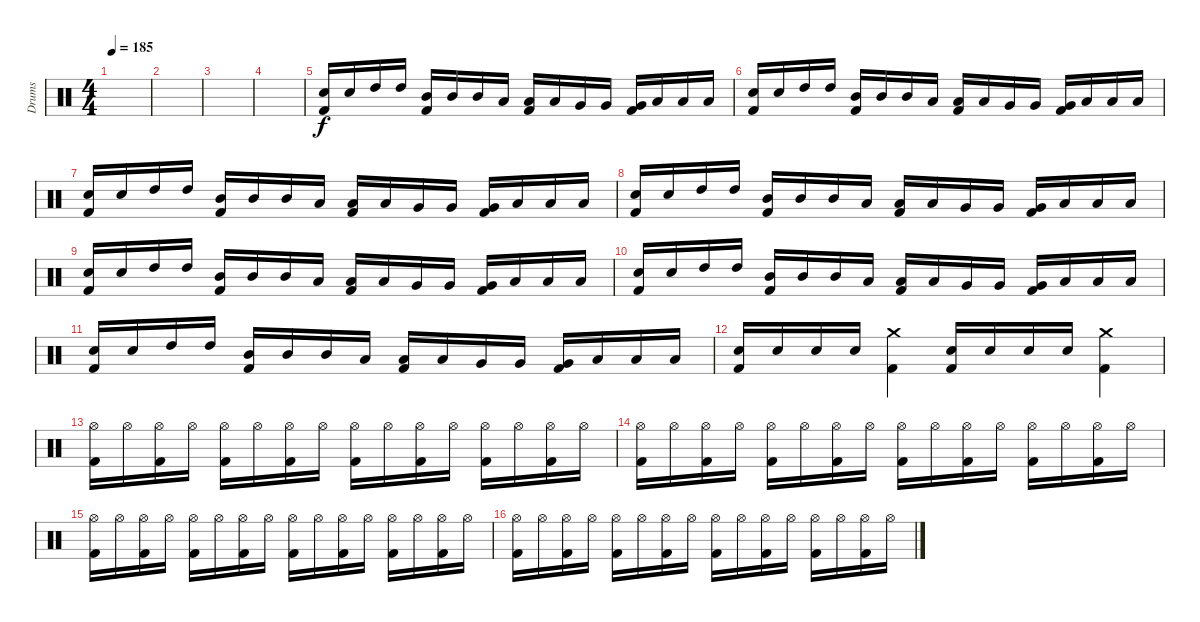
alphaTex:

\track ("Drums" "Drums") {instrument percussion}
\staff {score}
\articulation defaults
\ts (4 4)
\tempo 185
\clef neutral
\ks c
|
|
|
|
("Electric Snare (hit)" "Kick (hit) 2").16 "Electric Snare (hit)".16 "High Tom (hit)".16 "High Tom (hit)".16 ("Mid Tom (hit)" "Kick (hit) 2").16 "Mid Tom (hit)".16 "Mid Tom (hit)".16 "Low Tom (hit)".16 ("Low Tom (hit)" "Kick (hit) 2").16 "Low Tom (hit)".16 "Very Low Tom (hit)".16 "Very Low Tom (hit)".16 ("Very Low Tom (hit)" "Kick (hit) 2").16 "Low Floor Tom (hit)".16 "Low Floor Tom (hit)".16 "Low Floor Tom (hit)".16 |
("Electric Snare (hit)" "Kick (hit) 2").16 "Electric Snare (hit)".16 "High Tom (hit)".16 "High Tom (hit)".16 ("Mid Tom (hit)" "Kick (hit) 2").16 "Mid Tom (hit)".16 "Mid Tom (hit)".16 "Low Tom (hit)".16 ("Low Tom (hit)" "Kick (hit) 2").16 "Low Tom (hit)".16 "Very Low Tom (hit)".16 "Very Low Tom (hit)".16 ("Very Low Tom (hit)" "Kick (hit) 2").16 "Low Floor Tom (hit)".16 "Low Floor Tom (hit)".16 "Low Floor Tom (hit)".16 |
("Electric Snare (hit)" "Kick (hit) 2").16 "Electric Snare (hit)".16 "High Tom (hit)".16 "High Tom (hit)".16 ("Mid Tom (hit)" "Kick (hit) 2").16 "Mid Tom (hit)".16 "Mid Tom (hit)".16 "Low Tom (hit)".16 ("Low Tom (hit)" "Kick (hit) 2").16 "Low Tom (hit)".16 "Very Low Tom (hit)".16 "Very Low Tom (hit)".16 ("Very Low Tom (hit)" "Kick (hit) 2").16 "Low Floor Tom (hit)".16 "Low Floor Tom (hit)".16 "Low Floor Tom (hit)".16 |
("Electric Snare (hit)" "Kick (hit) 2").16 "Electric Snare (hit)".16 "High Tom (hit)".16 "High Tom (hit)".16 ("Mid Tom (hit)" "Kick (hit) 2").16 "Mid Tom (hit)".16 "Mid Tom (hit)".16 "Low Tom (hit)".16 ("Low Tom (hit)" "Kick (hit) 2").16 "Low Tom (hit)".16 "Very Low Tom (hit)".16 "Very Low Tom (hit)".16 ("Very Low Tom (hit)" "Kick (hit) 2").16 "Low Floor Tom (hit)".16 "Low Floor Tom (hit)".16 "Low Floor Tom (hit)".16 |
("Electric Snare (hit)" "Kick (hit) 2").16 "Electric Snare (hit)".16 "High Tom (hit)".16 "High Tom (hit)".16 ("Mid Tom (hit)" "Kick (hit) 2").16 "Mid Tom (hit)".16 "Mid Tom (hit)".16 "Low Tom (hit)".16 ("Low Tom (hit)" "Kick (hit) 2").16 "Low Tom (hit)".16 "Very Low Tom (hit)".16 "Very Low Tom (hit)".16 ("Very Low Tom (hit)" "Kick (hit) 2").16 "Low Floor Tom (hit)".16 "Low Floor Tom (hit)".16 "Low Floor Tom (hit)".16 |
("Electric Snare (hit)" "Kick (hit) 2").16 "Electric Snare (hit)".16 "High Tom (hit)".16 "High Tom (hit)".16 ("Mid Tom (hit)" "Kick (hit) 2").16 "Mid Tom (hit)".16 "Mid Tom (hit)".16 "Low Tom (hit)".16 ("Low Tom (hit)" "Kick (hit) 2").16 "Low Tom (hit)".16 "Very Low Tom (hit)".16 "Very Low Tom (hit)".16 ("Very Low Tom (hit)" "Kick (hit) 2").16 "Low Floor Tom (hit)".16 "Low Floor Tom (hit)".16 "Low Floor Tom (hit)".16 |
("Electric Snare (hit)" "Kick (hit) 2").16 "Electric Snare (hit)".16 "High Tom (hit)".16 "High Tom (hit)".16 ("Mid Tom (hit)" "Kick (hit) 2").16 "Mid Tom (hit)".16 "Mid Tom (hit)".16 "Low Tom (hit)".16 ("Low Tom (hit)" "Kick (hit) 2").16 "Low Tom (hit)".16 "Very Low Tom (hit)".16 "Very Low Tom (hit)".16 ("Very Low Tom (hit)" "Kick (hit) 2").16 "Low Floor Tom (hit)".16 "Low Floor Tom (hit)".16 "Low Floor Tom (hit)".16 |
("Electric Snare (hit)" "Kick (hit) 2").16 "Electric Snare (hit)".16 "Electric Snare (hit)".16 "Electric Snare (hit)".16 ("Crash medium (hit)" "Kick (hit) 2").4 ("Electric Snare (hit)" "Kick (hit) 2").16 "Electric Snare (hit)".16 "Electric Snare (hit)".16 "Electric Snare (hit)".16 ("Crash medium (hit)" "Kick (hit) 2").4 |
("Hi-Hat (open)" "Kick (hit) 2").16 "Hi-Hat (open)".16 ("Hi-Hat (open)" "Kick (hit) 2").16 "Hi-Hat (open)".16 ("Hi-Hat (open)" "Kick (hit) 2").16 "Hi-Hat (open)".16 ("Hi-Hat (open)" "Kick (hit) 2").16 "Hi-Hat (open)".16 ("Hi-Hat (open)" "Kick (hit) 2").16 "Hi-Hat (open)".16 ("Hi-Hat (open)" "Kick (hit) 2").16 "Hi-Hat (open)".16 ("Hi-Hat (open)" "Kick (hit) 2").16 "Hi-Hat (open)".16 ("Hi-Hat (open)" "Kick (hit) 2").16 "Hi-Hat (open)".16 |
("Hi-Hat (open)" "Kick (hit) 2").16 "Hi-Hat (open)".16 ("Hi-Hat (open)" "Kick (hit) 2").16 "Hi-Hat (open)".16 ("Hi-Hat (open)" "Kick (hit) 2").16 "Hi-Hat (open)".16 ("Hi-Hat (open)" "Kick (hit) 2").16 "Hi-Hat (open)".16 ("Hi-Hat (open)" "Kick (hit) 2").16 "Hi-Hat (open)".16 ("Hi-Hat (open)" "Kick (hit) 2").16 "Hi-Hat (open)".16 ("Hi-Hat (open)" "Kick (hit) 2").16 "Hi-Hat (open)".16 ("Hi-Hat (open)" "Kick (hit) 2").16 "Hi-Hat (open)".16 |
("Hi-Hat (open)" "Kick (hit) 2").16 "Hi-Hat (open)".16 ("Hi-Hat (open)" "Kick (hit) 2").16 "Hi-Hat (open)".16 ("Hi-Hat (open)" "Kick (hit) 2").16 "Hi-Hat (open)".16 ("Hi-Hat (open)" "Kick (hit) 2").16 "Hi-Hat (open)".16 ("Hi-Hat (open)" "Kick (hit) 2").16 "Hi-Hat (open)".16 ("Hi-Hat (open)" "Kick (hit) 2").16 "Hi-Hat (open)".16 ("Hi-Hat (open)" "Kick (hit) 2").16 "Hi-Hat (open)".16 ("Hi-Hat (open)" "Kick (hit) 2").16 "Hi-Hat (open)".16 |
("Hi-Hat (open)" "Kick (hit) 2").16 "Hi-Hat (open)".16 ("Hi-Hat (open)" "Kick (hit) 2").16 "Hi-Hat (open)".16 ("Hi-Hat (open)" "Kick (hit) 2").16 "Hi-Hat (open)".16 ("Hi-Hat (open)" "Kick (hit) 2").16 "Hi-Hat (open)".16 ("Hi-Hat (open)" "Kick (hit) 2").16 "Hi-Hat (open)".16 ("Hi-Hat (open)" "Kick (hit) 2").16 "Hi-Hat (open)".16 ("Hi-Hat (open)" "Kick (hit) 2").16 "Hi-Hat (open)".16 ("Hi-Hat (open)" "Kick (hit) 2").16 "Hi-Hat (open)".16
